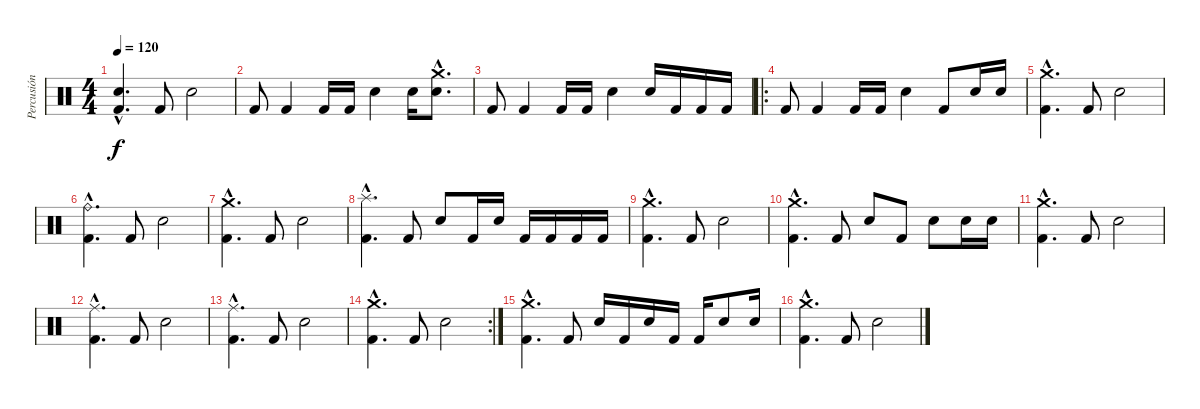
\track ("Percusión" "Percusión") {instrument percussion}
\staff {score}
\articulation defaults
\ts (4 4)
\tempo 120
\clef neutral
\ks c
("Electric Snare (hit)"{hac} "Kick (hit) 2"{hac}).4{d dy f} "Kick (hit) 2".8 "Electric Snare (hit)".2 |
"Kick (hit) 2".8 "Kick (hit) 2".4 "Kick (hit) 2".16 "Kick (hit) 2".16 "Electric Snare (hit)".4 "Electric Snare (hit)".16 ("Crash medium (hit)"{hac} "Electric Snare (hit)"{hac}).8{d} |
"Kick (hit) 2".8 "Kick (hit) 2".4 "Kick (hit) 2".16 "Kick (hit) 2".16 "Electric Snare (hit)".4 "Electric Snare (hit)".16 "Kick (hit) 2".16 "Kick (hit) 2".16 "Kick (hit) 2".16 |
\ro "Kick (hit) 2".8 "Kick (hit) 2".4 "Kick (hit) 2".16 "Kick (hit) 2".16 "Electric Snare (hit)".4 "Kick (hit) 2".8 "Electric Snare (hit)".16 "Electric Snare (hit)".16
|
("Crash medium (hit)"{hac} "Kick (hit) 2"{hac}).4{d} "Kick (hit) 2".8 "Electric Snare (hit)".2 |
("Ride (bell)"{hac} "Kick (hit) 2"{hac}).4{d} "Kick (hit) 2".8 "Electric Snare (hit)".2 |
("Crash medium (hit)"{hac} "Kick (hit) 2"{hac}).4{d} "Kick (hit) 2".8 "Electric Snare (hit)".2 |
("Splash (hit)"{hac} "Kick (hit) 2"{hac}).4{d} "Kick (hit) 2".8 "Electric Snare (hit)".8 "Kick (hit) 2".16 "Electric Snare (hit)".16 "Kick (hit) 2".16 "Kick (hit) 2".16 "Kick (hit) 2".16 "Kick (hit) 2".16 |
("Crash medium (hit)"{hac} "Kick (hit) 2"{hac}).4{d} "Kick (hit) 2".8 "Electric Snare (hit)".2 |
("Crash medium (hit)"{hac} "Kick (hit) 2"{hac}).4{d} "Kick (hit) 2".8 "Electric Snare (hit)".8 "Kick (hit) 2".8 "Electric Snare (hit)".8 "Electric Snare (hit)".16 "Electric Snare (hit)".16 |
("Crash medium (hit)"{hac} "Kick (hit) 2"{hac}).4{d} "Kick (hit) 2".8 "Electric Snare (hit)".2 |
("Ride (middle)"{hac} "Kick (hit) 2"{hac}).4{d} "Kick (hit) 2".8 "Electric Snare (hit)".2 |
("Ride (middle)"{hac} "Kick (hit) 2"{hac}).4{d} "Kick (hit) 2".8 "Electric Snare (hit)".2 |
\rc 2
("Crash medium (hit)"{hac} "Kick (hit) 2"{hac}).4{d} "Kick (hit) 2".8 "Electric Snare (hit)".2 |
("Crash medium (hit)"{hac} "Kick (hit) 2"{hac}).4{d} "Kick (hit) 2".8 "Electric Snare (hit)".16 "Kick (hit) 2".16 "Electric Snare (hit)".16 "Kick (hit) 2".16 "Kick (hit) 2".16 "Electric Snare (hit)".8 "Electric Snare (hit)".16 |
("Crash medium (hit)"{hac} "Kick (hit) 2"{hac}).4{d} "Kick (hit) 2".8 "Electric Snare (hit)".2
